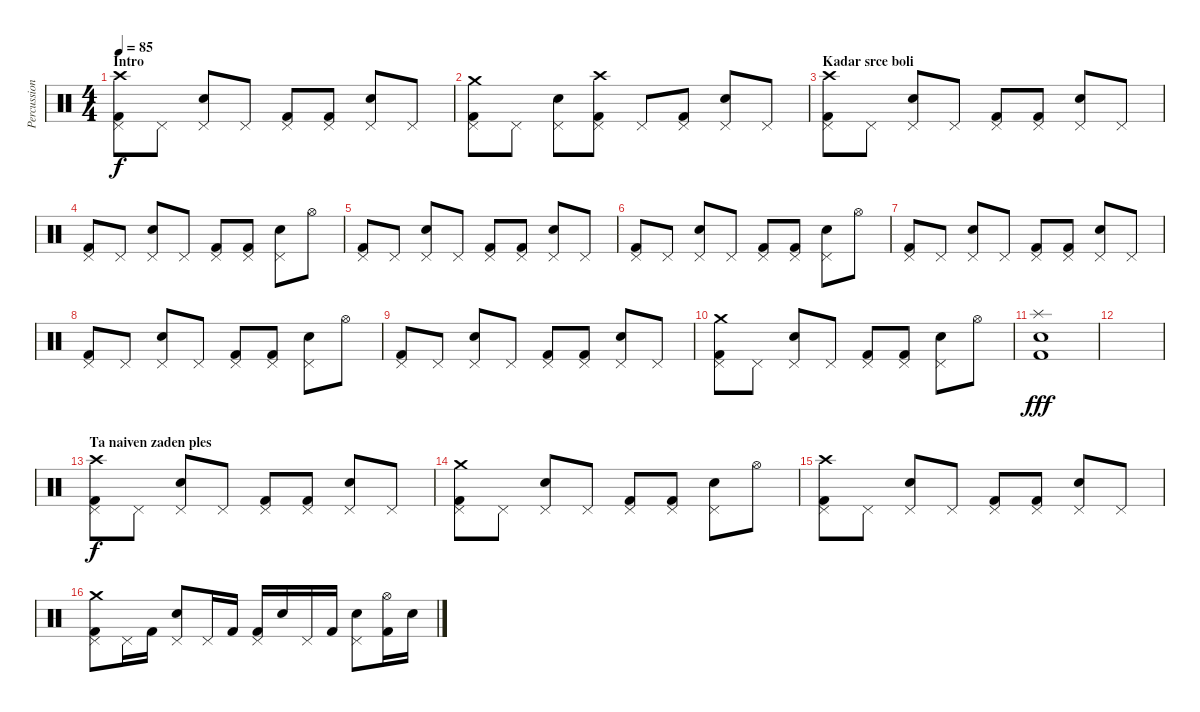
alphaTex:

\track ("Percussion" "Percussion") {instrument percussion}
\staff {score}
\articulation defaults
\ts (4 4)
\section ("" "Intro")
\tempo 85
\clef neutral
\ks c
("Crash high (hit)" "Pedal Hi-Hat (hit)" "Kick (hit) 2").8{dy f} "Pedal Hi-Hat (hit)".8 ("Pedal Hi-Hat (hit)" "Snare (hit) 2").8 "Pedal Hi-Hat (hit)".8 ("Pedal Hi-Hat (hit)" "Kick (hit) 2").8 ("Pedal Hi-Hat (hit)" "Kick (hit) 2").8 ("Pedal Hi-Hat (hit)" "Snare (hit) 2").8 "Pedal Hi-Hat (hit)".8 |
("Crash medium (hit)" "Pedal Hi-Hat (hit)" "Kick (hit) 2").8 "Pedal Hi-Hat (hit)".8 ("Pedal Hi-Hat (hit)" "Snare (hit) 2").8 ("Crash high (hit)" "Pedal Hi-Hat (hit)" "Kick (hit) 2").8 "Pedal Hi-Hat (hit)".8 ("Pedal Hi-Hat (hit)" "Kick (hit) 2").8 ("Pedal Hi-Hat (hit)" "Snare (hit) 2").8 "Pedal Hi-Hat (hit)".8 |
\section ("" "Kadar srce boli")
("Crash high (hit)" "Pedal Hi-Hat (hit)" "Kick (hit) 2").8 "Pedal Hi-Hat (hit)".8 ("Pedal Hi-Hat (hit)" "Snare (hit) 2").8 "Pedal Hi-Hat (hit)".8 ("Pedal Hi-Hat (hit)" "Kick (hit) 2").8 ("Pedal Hi-Hat (hit)" "Kick (hit) 2").8 ("Pedal Hi-Hat (hit)" "Snare (hit) 2").8 "Pedal Hi-Hat (hit)".8 |
("Pedal Hi-Hat (hit)" "Kick (hit) 2").8 "Pedal Hi-Hat (hit)".8 ("Pedal Hi-Hat (hit)" "Snare (hit) 2").8 "Pedal Hi-Hat (hit)".8 ("Pedal Hi-Hat (hit)" "Kick (hit) 2").8 ("Pedal Hi-Hat (hit)" "Kick (hit) 2").8 ("Pedal Hi-Hat (hit)" "Snare (hit) 2").8 "Hi-Hat (open)".8 |
("Pedal Hi-Hat (hit)" "Kick (hit) 2").8 "Pedal Hi-Hat (hit)".8 ("Pedal Hi-Hat (hit)" "Snare (hit) 2").8 "Pedal Hi-Hat (hit)".8 ("Pedal Hi-Hat (hit)" "Kick (hit) 2").8 ("Pedal Hi-Hat (hit)" "Kick (hit) 2").8 ("Pedal Hi-Hat (hit)" "Snare (hit) 2").8 "Pedal Hi-Hat (hit)".8 |
("Pedal Hi-Hat (hit)" "Kick (hit) 2").8 "Pedal Hi-Hat (hit)".8 ("Pedal Hi-Hat (hit)" "Snare (hit) 2").8 "Pedal Hi-Hat (hit)".8 ("Pedal Hi-Hat (hit)" "Kick (hit) 2").8 ("Pedal Hi-Hat (hit)" "Kick (hit) 2").8 ("Pedal Hi-Hat (hit)" "Snare (hit) 2").8 "Hi-Hat (open)".8 |
("Pedal Hi-Hat (hit)" "Kick (hit) 2").8 "Pedal Hi-Hat (hit)".8 ("Pedal Hi-Hat (hit)" "Snare (hit) 2").8 "Pedal Hi-Hat (hit)".8 ("Pedal Hi-Hat (hit)" "Kick (hit) 2").8 ("Pedal Hi-Hat (hit)" "Kick (hit) 2").8 ("Pedal Hi-Hat (hit)" "Snare (hit) 2").8 "Pedal Hi-Hat (hit)".8 |
("Pedal Hi-Hat (hit)" "Kick (hit) 2").8 "Pedal Hi-Hat (hit)".8 ("Pedal Hi-Hat (hit)" "Snare (hit) 2").8 "Pedal Hi-Hat (hit)".8 ("Pedal Hi-Hat (hit)" "Kick (hit) 2").8 ("Pedal Hi-Hat (hit)" "Kick (hit) 2").8 ("Pedal Hi-Hat (hit)" "Snare (hit) 2").8 "Hi-Hat (open)".8 |
("Pedal Hi-Hat (hit)" "Kick (hit) 2").8 "Pedal Hi-Hat (hit)".8 ("Pedal Hi-Hat (hit)" "Snare (hit) 2").8 "Pedal Hi-Hat (hit)".8 ("Pedal Hi-Hat (hit)" "Kick (hit) 2").8 ("Pedal Hi-Hat (hit)" "Kick (hit) 2").8 ("Pedal Hi-Hat (hit)" "Snare (hit) 2").8 "Pedal Hi-Hat (hit)".8 |
("Crash medium (hit)" "Pedal Hi-Hat (hit)" "Kick (hit) 2").8 "Pedal Hi-Hat (hit)".8 ("Pedal Hi-Hat (hit)" "Snare (hit) 2").8 "Pedal Hi-Hat (hit)".8 ("Pedal Hi-Hat (hit)" "Kick (hit) 2").8 ("Pedal Hi-Hat (hit)" "Kick (hit) 2").8 ("Pedal Hi-Hat (hit)" "Snare (hit) 2").8 "Hi-Hat (open)".8 |
("Splash (hit)" "Snare (hit) 2" "Kick (hit) 2").1{dy fff} |
|
\section ("" "Ta naiven zaden ples")
("Crash high (hit)" "Pedal Hi-Hat (hit)" "Kick (hit) 2").8{dy f} "Pedal Hi-Hat (hit)".8 ("Pedal Hi-Hat (hit)" "Snare (hit) 2").8 "Pedal Hi-Hat (hit)".8 ("Pedal Hi-Hat (hit)" "Kick (hit) 2").8 ("Pedal Hi-Hat (hit)" "Kick (hit) 2").8 ("Pedal Hi-Hat (hit)" "Snare (hit) 2").8 "Pedal Hi-Hat (hit)".8 |
("Crash medium (hit)" "Pedal Hi-Hat (hit)" "Kick (hit) 2").8 "Pedal Hi-Hat (hit)".8 ("Pedal Hi-Hat (hit)" "Snare (hit) 2").8 "Pedal Hi-Hat (hit)".8 ("Pedal Hi-Hat (hit)" "Kick (hit) 2").8 ("Pedal Hi-Hat (hit)" "Kick (hit) 2").8 ("Pedal Hi-Hat (hit)" "Snare (hit) 2").8 "Hi-Hat (open)".8 |
("Crash high (hit)" "Pedal Hi-Hat (hit)" "Kick (hit) 2").8 "Pedal Hi-Hat (hit)".8 ("Pedal Hi-Hat (hit)" "Snare (hit) 2").8 "Pedal Hi-Hat (hit)".8 ("Pedal Hi-Hat (hit)" "Kick (hit) 2").8 ("Pedal Hi-Hat (hit)" "Kick (hit) 2").8 ("Pedal Hi-Hat (hit)" "Snare (hit) 2").8 "Pedal Hi-Hat (hit)".8 |
("Crash medium (hit)" "Pedal Hi-Hat (hit)" "Kick (hit) 2").8 "Pedal Hi-Hat (hit)".16 "Kick (hit) 2".16 ("Pedal Hi-Hat (hit)" "Snare (hit) 2").8 "Pedal Hi-Hat (hit)".16 "Kick (hit) 2".16 ("Pedal Hi-Hat (hit)" "Kick (hit) 2").16 "Snare (hit) 2".16 "Pedal Hi-Hat (hit)".16 "Kick (hit) 2".16 ("Pedal Hi-Hat (hit)" "Snare (hit) 2").8 ("Hi-Hat (open)" "Kick (hit) 2").16 "Snare (hit) 2".16
